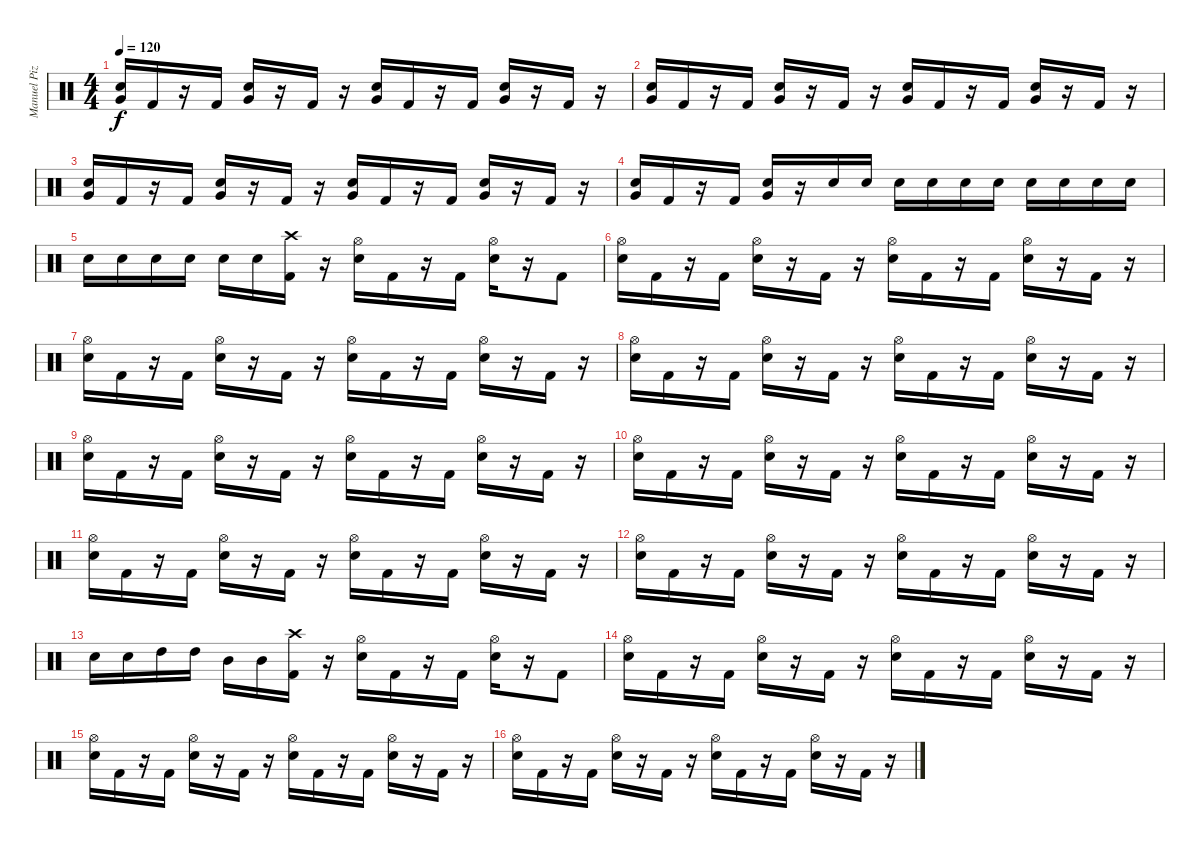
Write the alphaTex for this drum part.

\track ("Manuel Pizarro" "Manuel Piz") {instrument percussion}
\staff {score}
\articulation defaults
\ts (4 4)
\tempo 120
\clef neutral
\ks c
("Electric Snare (hit)" "Very Low Tom (hit)").16{dy f} "Kick (hit) 2".16 r.16 "Kick (hit) 2".16 ("Electric Snare (hit)" "Very Low Tom (hit)").16 r.16 "Kick (hit) 2".16 r.16 ("Electric Snare (hit)" "Very Low Tom (hit)").16 "Kick (hit) 2".16 r.16 "Kick (hit) 2".16 ("Electric Snare (hit)" "Very Low Tom (hit)").16 r.16 "Kick (hit) 2".16 r.16 |
("Electric Snare (hit)" "Very Low Tom (hit)").16 "Kick (hit) 2".16 r.16 "Kick (hit) 2".16 ("Electric Snare (hit)" "Very Low Tom (hit)").16 r.16 "Kick (hit) 2".16 r.16 ("Electric Snare (hit)" "Very Low Tom (hit)").16 "Kick (hit) 2".16 r.16 "Kick (hit) 2".16 ("Electric Snare (hit)" "Very Low Tom (hit)").16 r.16 "Kick (hit) 2".16 r.16 |
("Electric Snare (hit)" "Very Low Tom (hit)").16 "Kick (hit) 2".16 r.16 "Kick (hit) 2".16 ("Electric Snare (hit)" "Very Low Tom (hit)").16 r.16 "Kick (hit) 2".16 r.16 ("Electric Snare (hit)" "Very Low Tom (hit)").16 "Kick (hit) 2".16 r.16 "Kick (hit) 2".16 ("Electric Snare (hit)" "Very Low Tom (hit)").16 r.16 "Kick (hit) 2".16 r.16 |
("Electric Snare (hit)" "Very Low Tom (hit)").16 "Kick (hit) 2".16 r.16 "Kick (hit) 2".16 ("Electric Snare (hit)" "Very Low Tom (hit)").16 r.16 "Electric Snare (hit)".16 "Electric Snare (hit)".16 "Electric Snare (hit)".16 "Electric Snare (hit)".16 "Electric Snare (hit)".16 "Electric Snare (hit)".16 "Electric Snare (hit)".16 "Electric Snare (hit)".16 "Electric Snare (hit)".16 "Electric Snare (hit)".16 |
"Electric Snare (hit)".16 "Electric Snare (hit)".16 "Electric Snare (hit)".16 "Electric Snare (hit)".16 "Electric Snare (hit)".16 "Electric Snare (hit)".16 ("Kick (hit) 2" "Crash high (hit)").16 r.16 ("Electric Snare (hit)" "Hi-Hat (open)").16 "Kick (hit) 2".16 r.16 "Kick (hit) 2".16 ("Electric Snare (hit)" "Hi-Hat (open)").16 r.16 "Kick (hit) 2".8 |
("Electric Snare (hit)" "Hi-Hat (open)").16 "Kick (hit) 2".16 r.16 "Kick (hit) 2".16 ("Electric Snare (hit)" "Hi-Hat (open)").16 r.16 "Kick (hit) 2".16 r.16 ("Electric Snare (hit)" "Hi-Hat (open)").16 "Kick (hit) 2".16 r.16 "Kick (hit) 2".16 ("Electric Snare (hit)" "Hi-Hat (open)").16 r.16 "Kick (hit) 2".16 r.16 |
("Electric Snare (hit)" "Hi-Hat (open)").16 "Kick (hit) 2".16 r.16 "Kick (hit) 2".16 ("Electric Snare (hit)" "Hi-Hat (open)").16 r.16 "Kick (hit) 2".16 r.16 ("Electric Snare (hit)" "Hi-Hat (open)").16 "Kick (hit) 2".16 r.16 "Kick (hit) 2".16 ("Electric Snare (hit)" "Hi-Hat (open)").16 r.16 "Kick (hit) 2".16 r.16 |
("Electric Snare (hit)" "Hi-Hat (open)").16 "Kick (hit) 2".16 r.16 "Kick (hit) 2".16 ("Electric Snare (hit)" "Hi-Hat (open)").16 r.16 "Kick (hit) 2".16 r.16 ("Electric Snare (hit)" "Hi-Hat (open)").16 "Kick (hit) 2".16 r.16 "Kick (hit) 2".16 ("Electric Snare (hit)" "Hi-Hat (open)").16 r.16 "Kick (hit) 2".16 r.16 |
("Electric Snare (hit)" "Hi-Hat (open)").16 "Kick (hit) 2".16 r.16 "Kick (hit) 2".16 ("Electric Snare (hit)" "Hi-Hat (open)").16 r.16 "Kick (hit) 2".16 r.16 ("Electric Snare (hit)" "Hi-Hat (open)").16 "Kick (hit) 2".16 r.16 "Kick (hit) 2".16 ("Electric Snare (hit)" "Hi-Hat (open)").16 r.16 "Kick (hit) 2".16 r.16 |
("Electric Snare (hit)" "Hi-Hat (open)").16 "Kick (hit) 2".16 r.16 "Kick (hit) 2".16 ("Electric Snare (hit)" "Hi-Hat (open)").16 r.16 "Kick (hit) 2".16 r.16 ("Electric Snare (hit)" "Hi-Hat (open)").16 "Kick (hit) 2".16 r.16 "Kick (hit) 2".16 ("Electric Snare (hit)" "Hi-Hat (open)").16 r.16 "Kick (hit) 2".16 r.16 |
("Electric Snare (hit)" "Hi-Hat (open)").16 "Kick (hit) 2".16 r.16 "Kick (hit) 2".16 ("Electric Snare (hit)" "Hi-Hat (open)").16 r.16 "Kick (hit) 2".16 r.16 ("Electric Snare (hit)" "Hi-Hat (open)").16 "Kick (hit) 2".16 r.16 "Kick (hit) 2".16 ("Electric Snare (hit)" "Hi-Hat (open)").16 r.16 "Kick (hit) 2".16 r.16 |
("Electric Snare (hit)" "Hi-Hat (open)").16 "Kick (hit) 2".16 r.16 "Kick (hit) 2".16 ("Electric Snare (hit)" "Hi-Hat (open)").16 r.16 "Kick (hit) 2".16 r.16 ("Electric Snare (hit)" "Hi-Hat (open)").16 "Kick (hit) 2".16 r.16 "Kick (hit) 2".16 ("Electric Snare (hit)" "Hi-Hat (open)").16 r.16 "Kick (hit) 2".16 r.16 |
"Electric Snare (hit)".16 "Electric Snare (hit)".16 "High Tom (hit)".16 "High Tom (hit)".16 "Mid Tom (hit)".16 "Mid Tom (hit)".16 ("Kick (hit) 2" "Crash high (hit)").16 r.16 ("Electric Snare (hit)" "Hi-Hat (open)").16 "Kick (hit) 2".16 r.16 "Kick (hit) 2".16 ("Electric Snare (hit)" "Hi-Hat (open)").16 r.16 "Kick (hit) 2".8 |
("Electric Snare (hit)" "Hi-Hat (open)").16 "Kick (hit) 2".16 r.16 "Kick (hit) 2".16 ("Electric Snare (hit)" "Hi-Hat (open)").16 r.16 "Kick (hit) 2".16 r.16 ("Electric Snare (hit)" "Hi-Hat (open)").16 "Kick (hit) 2".16 r.16 "Kick (hit) 2".16 ("Electric Snare (hit)" "Hi-Hat (open)").16 r.16 "Kick (hit) 2".16 r.16 |
("Electric Snare (hit)" "Hi-Hat (open)").16 "Kick (hit) 2".16 r.16 "Kick (hit) 2".16 ("Electric Snare (hit)" "Hi-Hat (open)").16 r.16 "Kick (hit) 2".16 r.16 ("Electric Snare (hit)" "Hi-Hat (open)").16 "Kick (hit) 2".16 r.16 "Kick (hit) 2".16 ("Electric Snare (hit)" "Hi-Hat (open)").16 r.16 "Kick (hit) 2".16 r.16 |
("Electric Snare (hit)" "Hi-Hat (open)").16 "Kick (hit) 2".16 r.16 "Kick (hit) 2".16 ("Electric Snare (hit)" "Hi-Hat (open)").16 r.16 "Kick (hit) 2".16 r.16 ("Electric Snare (hit)" "Hi-Hat (open)").16 "Kick (hit) 2".16 r.16 "Kick (hit) 2".16 ("Electric Snare (hit)" "Hi-Hat (open)").16 r.16 "Kick (hit) 2".16 r.16
